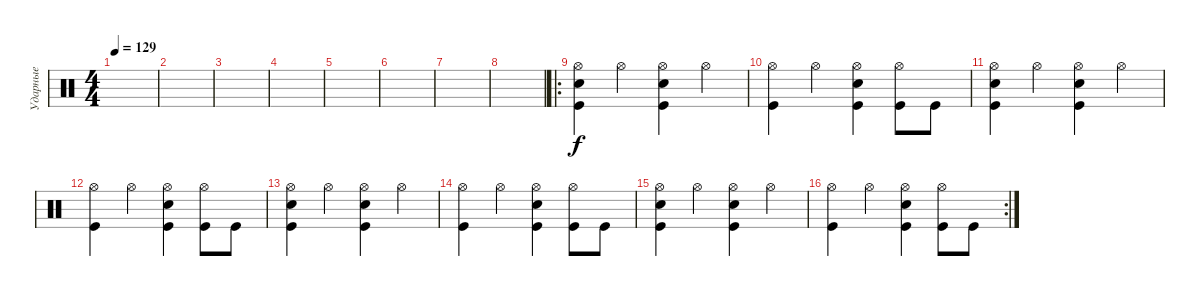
\track ("Ударные" "Ударные") {instrument percussion}
\staff {score}
\articulation defaults
\ts (4 4)
\tempo 129
\clef neutral
\ks c
|
|
|
|
|
|
|
|
\ro
("Hi-Hat (open)" "Snare (hit) 2" "Kick (hit)").4 "Hi-Hat (open)".4 ("Kick (hit)" "Hi-Hat (open)" "Snare (hit) 2").4 "Hi-Hat (open)".4 |
("Hi-Hat (open)" "Kick (hit)").4 "Hi-Hat (open)".4 ("Kick (hit)" "Hi-Hat (open)" "Snare (hit) 2").4 ("Hi-Hat (open)" "Kick (hit)").8 "Kick (hit)".8 |
("Hi-Hat (open)" "Snare (hit) 2" "Kick (hit)").4 "Hi-Hat (open)".4 ("Kick (hit)" "Hi-Hat (open)" "Snare (hit) 2").4 "Hi-Hat (open)".4 |
("Hi-Hat (open)" "Kick (hit)").4 "Hi-Hat (open)".4 ("Kick (hit)" "Hi-Hat (open)" "Snare (hit) 2").4 ("Hi-Hat (open)" "Kick (hit)").8 "Kick (hit)".8 |
("Hi-Hat (open)" "Snare (hit) 2" "Kick (hit)").4 "Hi-Hat (open)".4 ("Kick (hit)" "Hi-Hat (open)" "Snare (hit) 2").4 "Hi-Hat (open)".4 |
("Hi-Hat (open)" "Kick (hit)").4 "Hi-Hat (open)".4 ("Kick (hit)" "Hi-Hat (open)" "Snare (hit) 2").4 ("Hi-Hat (open)" "Kick (hit)").8 "Kick (hit)".8 |
("Hi-Hat (open)" "Snare (hit) 2" "Kick (hit)").4 "Hi-Hat (open)".4 ("Kick (hit)" "Hi-Hat (open)" "Snare (hit) 2").4 "Hi-Hat (open)".4 |
\rc 2
("Hi-Hat (open)" "Kick (hit)").4 "Hi-Hat (open)".4 ("Kick (hit)" "Hi-Hat (open)" "Snare (hit) 2").4 ("Hi-Hat (open)" "Kick (hit)").8 "Kick (hit)".8
